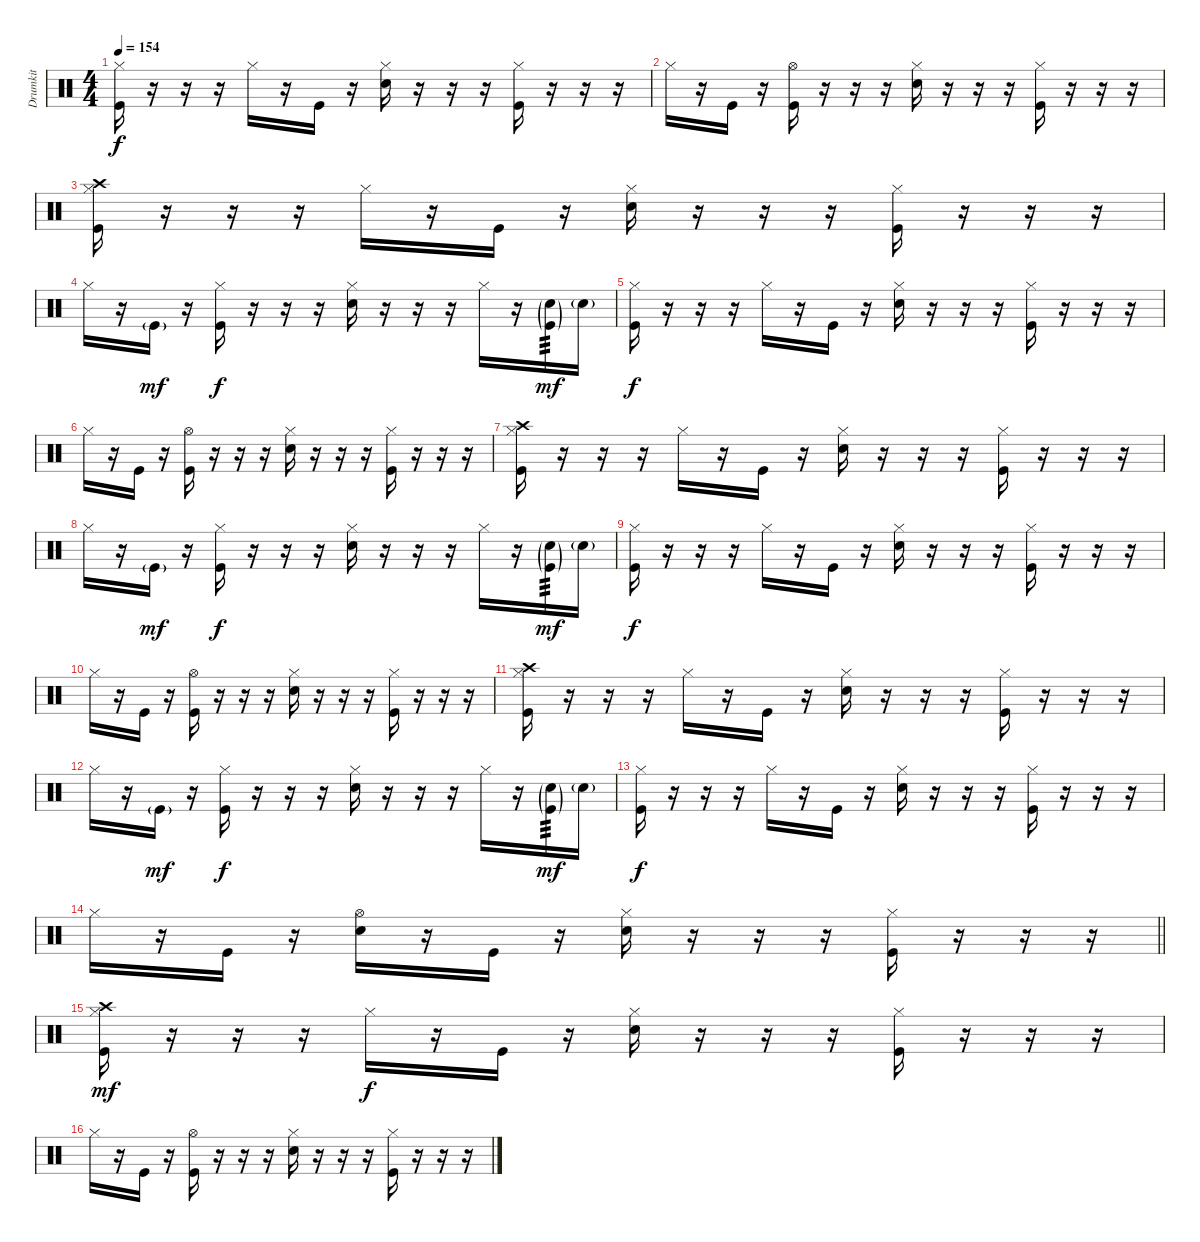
\track ("Drumkit" "Drumkit") {instrument percussion}
\staff {score}
\articulation defaults
\ts (4 4)
\tempo 154
\clef neutral
\ks c
("Hi-Hat (closed)" "Kick (hit)").16{dy f} r.16 r.16 r.16 "Hi-Hat (closed)".16 r.16 "Kick (hit)".16 r.16 ("Hi-Hat (closed)" "Snare (hit) 2").16 r.16 r.16 r.16 ("Hi-Hat (closed)" "Kick (hit)").16 r.16 r.16 r.16 |
"Hi-Hat (closed)".16 r.16 "Kick (hit)".16 r.16 ("Hi-Hat (open)" "Kick (hit)").16 r.16 r.16 r.16 ("Hi-Hat (closed)" "Snare (hit) 2").16 r.16 r.16 r.16 ("Hi-Hat (closed)" "Kick (hit)").16 r.16 r.16 r.16 |
("Crash high (hit)" "Hi-Hat (closed)" "Kick (hit)").16 r.16 r.16 r.16 "Hi-Hat (closed)".16 r.16 "Kick (hit)".16 r.16 ("Hi-Hat (closed)" "Snare (hit) 2").16 r.16 r.16 r.16 ("Hi-Hat (closed)" "Kick (hit)").16 r.16 r.16 r.16 |
"Hi-Hat (closed)".16 r.16 "Kick (hit)"{g}.16{dy mf} r.16 ("Hi-Hat (closed)" "Kick (hit)").16{dy f} r.16 r.16 r.16 ("Hi-Hat (closed)" "Snare (hit) 2").16 r.16 r.16 r.16 "Hi-Hat (closed)".16 r.16 ("Snare (hit) 2"{g} "Kick (hit)"{g}).16{tp 3 dy mf} "Snare (hit) 2"{g}.16 |
("Hi-Hat (closed)" "Kick (hit)").16{dy f} r.16 r.16 r.16 "Hi-Hat (closed)".16 r.16 "Kick (hit)".16 r.16 ("Hi-Hat (closed)" "Snare (hit) 2").16 r.16 r.16 r.16 ("Hi-Hat (closed)" "Kick (hit)").16 r.16 r.16 r.16 |
"Hi-Hat (closed)".16 r.16 "Kick (hit)".16 r.16 ("Hi-Hat (open)" "Kick (hit)").16 r.16 r.16 r.16 ("Hi-Hat (closed)" "Snare (hit) 2").16 r.16 r.16 r.16 ("Hi-Hat (closed)" "Kick (hit)").16 r.16 r.16 r.16 |
("Crash high (hit)" "Hi-Hat (closed)" "Kick (hit)").16 r.16 r.16 r.16 "Hi-Hat (closed)".16 r.16 "Kick (hit)".16 r.16 ("Hi-Hat (closed)" "Snare (hit) 2").16 r.16 r.16 r.16 ("Hi-Hat (closed)" "Kick (hit)").16 r.16 r.16 r.16 |
"Hi-Hat (closed)".16 r.16 "Kick (hit)"{g}.16{dy mf} r.16 ("Hi-Hat (closed)" "Kick (hit)").16{dy f} r.16 r.16 r.16 ("Hi-Hat (closed)" "Snare (hit) 2").16 r.16 r.16 r.16 "Hi-Hat (closed)".16 r.16 ("Snare (hit) 2"{g} "Kick (hit)"{g}).16{tp 3 dy mf} "Snare (hit) 2"{g}.16 |
("Hi-Hat (closed)" "Kick (hit)").16{dy f} r.16 r.16 r.16 "Hi-Hat (closed)".16 r.16 "Kick (hit)".16 r.16 ("Hi-Hat (closed)" "Snare (hit) 2").16 r.16 r.16 r.16 ("Hi-Hat (closed)" "Kick (hit)").16 r.16 r.16 r.16 |
"Hi-Hat (closed)".16 r.16 "Kick (hit)".16 r.16 ("Hi-Hat (open)" "Kick (hit)").16 r.16 r.16 r.16 ("Hi-Hat (closed)" "Snare (hit) 2").16 r.16 r.16 r.16 ("Hi-Hat (closed)" "Kick (hit)").16 r.16 r.16 r.16 |
("Crash high (hit)" "Hi-Hat (closed)" "Kick (hit)").16 r.16 r.16 r.16 "Hi-Hat (closed)".16 r.16 "Kick (hit)".16 r.16 ("Hi-Hat (closed)" "Snare (hit) 2").16 r.16 r.16 r.16 ("Hi-Hat (closed)" "Kick (hit)").16 r.16 r.16 r.16 |
"Hi-Hat (closed)".16 r.16 "Kick (hit)"{g}.16{dy mf} r.16 ("Hi-Hat (closed)" "Kick (hit)").16{dy f} r.16 r.16 r.16 ("Hi-Hat (closed)" "Snare (hit) 2").16 r.16 r.16 r.16 "Hi-Hat (closed)".16 r.16 ("Snare (hit) 2"{g} "Kick (hit)"{g}).16{tp 3 dy mf} "Snare (hit) 2"{g}.16 |
("Hi-Hat (closed)" "Kick (hit)").16{dy f} r.16 r.16 r.16 "Hi-Hat (closed)".16 r.16 "Kick (hit)".16 r.16 ("Hi-Hat (closed)" "Snare (hit) 2").16 r.16 r.16 r.16 ("Hi-Hat (closed)" "Kick (hit)").16 r.16 r.16 r.16 |
\barLineRight lightlight "Hi-Hat (closed)".16
r.16 "Kick (hit)".16 r.16 ("Hi-Hat (open)" "Snare (hit) 2").16 r.16 "Kick (hit)".16 r.16 ("Hi-Hat (closed)" "Snare (hit) 2").16 r.16 r.16 r.16 ("Hi-Hat (closed)" "Kick (hit)").16 r.16 r.16 r.16 |
("Crash high (hit)" "Hi-Hat (closed)" "Kick (hit)").16{dy mf} r.16 r.16 r.16 "Hi-Hat (closed)".16{dy f} r.16 "Kick (hit)".16 r.16 ("Hi-Hat (closed)" "Snare (hit) 2").16 r.16 r.16 r.16 ("Hi-Hat (closed)" "Kick (hit)").16 r.16 r.16 r.16 |
"Hi-Hat (closed)".16 r.16 "Kick (hit)".16 r.16 ("Hi-Hat (open)" "Kick (hit)").16 r.16 r.16 r.16 ("Hi-Hat (closed)" "Snare (hit) 2").16 r.16 r.16 r.16 ("Hi-Hat (closed)" "Kick (hit)").16 r.16 r.16 r.16
